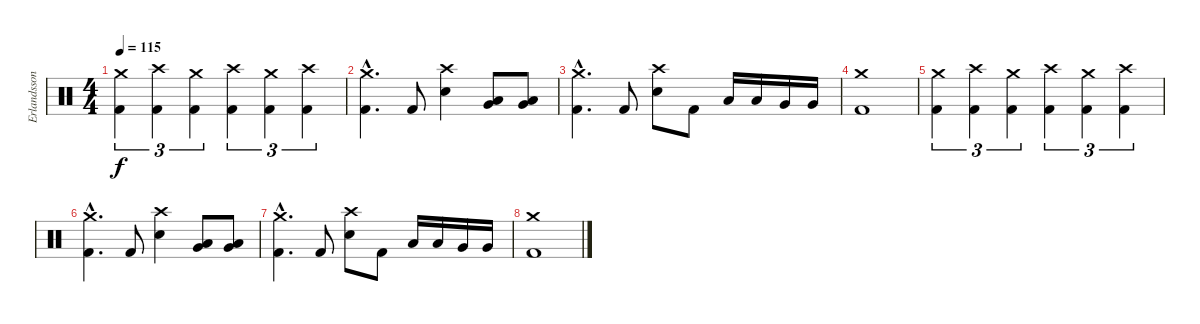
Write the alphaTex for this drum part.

\track ("Erlandsson" "Erlandsson") {instrument percussion}
\staff {score}
\articulation defaults
\ts (4 4)
\tempo 115
\clef neutral
\ks c
("Crash medium (hit)" "Kick (hit) 2").4{tu (3 2) dy f} ("Crash high (hit)" "Kick (hit) 2").4{tu (3 2)} ("Crash medium (hit)" "Kick (hit) 2").4{tu (3 2)} ("Crash high (hit)" "Kick (hit) 2").4{tu (3 2)} ("Crash medium (hit)" "Kick (hit) 2").4{tu (3 2)} ("Crash high (hit)" "Kick (hit) 2").4{tu (3 2)} |
("Crash medium (hit)"{hac} "Kick (hit) 2"{hac}).4{d} "Kick (hit) 2".8 ("Crash high (hit)" "Electric Snare (hit)").4 ("Very Low Tom (hit)" "Low Floor Tom (hit)").8 ("Very Low Tom (hit)" "Low Floor Tom (hit)").8 |
("Crash medium (hit)"{hac} "Kick (hit) 2"{hac}).4{d} "Kick (hit) 2".8 ("Crash high (hit)" "Electric Snare (hit)").8 "Kick (hit) 2".8 "Low Tom (hit)".16 "Low Tom (hit)".16 "Very Low Tom (hit)".16 "Very Low Tom (hit)".16 |
("Crash medium (hit)" "Kick (hit) 2").1 |
("Crash medium (hit)" "Kick (hit) 2").4{tu (3 2)} ("Crash high (hit)" "Kick (hit) 2").4{tu (3 2)} ("Crash medium (hit)" "Kick (hit) 2").4{tu (3 2)} ("Crash high (hit)" "Kick (hit) 2").4{tu (3 2)} ("Crash medium (hit)" "Kick (hit) 2").4{tu (3 2)} ("Crash high (hit)" "Kick (hit) 2").4{tu (3 2)} |
("Crash medium (hit)"{hac} "Kick (hit) 2"{hac}).4{d} "Kick (hit) 2".8 ("Crash high (hit)" "Electric Snare (hit)").4 ("Very Low Tom (hit)" "Low Floor Tom (hit)").8 ("Very Low Tom (hit)" "Low Floor Tom (hit)").8 |
("Crash medium (hit)"{hac} "Kick (hit) 2"{hac}).4{d} "Kick (hit) 2".8 ("Crash high (hit)" "Electric Snare (hit)").8 "Kick (hit) 2".8 "Low Tom (hit)".16 "Low Tom (hit)".16 "Very Low Tom (hit)".16 "Very Low Tom (hit)".16 |
("Crash medium (hit)" "Kick (hit) 2").1
